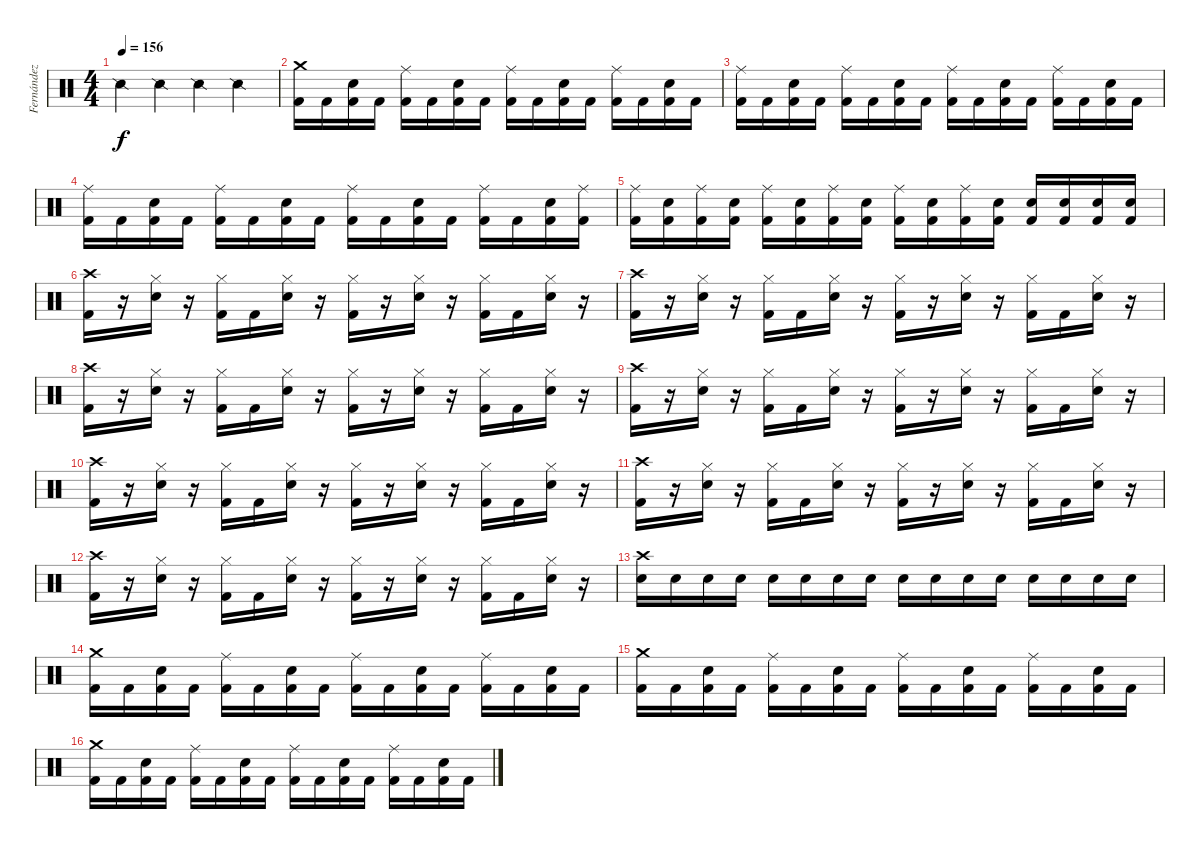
\track ("Fernández" "Fernández") {instrument percussion}
\staff {score}
\articulation defaults
\ts (4 4)
\tempo 156
\clef neutral
\ks c "Snare (side stick) 2".4{dy f} "Snare (side stick) 2".4 "Snare (side stick) 2".4 "Snare (side stick) 2".4
|
("Kick (hit) 2" "Crash medium (hit)").16 "Kick (hit) 2".16 ("Kick (hit) 2" "Electric Snare (hit)").16 "Kick (hit) 2".16 ("Kick (hit) 2" "Ride (middle)").16 "Kick (hit) 2".16 ("Kick (hit) 2" "Electric Snare (hit)").16 "Kick (hit) 2".16 ("Kick (hit) 2" "Ride (middle)").16 "Kick (hit) 2".16 ("Kick (hit) 2" "Electric Snare (hit)").16 "Kick (hit) 2".16 ("Kick (hit) 2" "Ride (middle)").16 "Kick (hit) 2".16 ("Kick (hit) 2" "Electric Snare (hit)").16 "Kick (hit) 2".16 |
("Kick (hit) 2" "Ride (middle)").16 "Kick (hit) 2".16 ("Kick (hit) 2" "Electric Snare (hit)").16 "Kick (hit) 2".16 ("Kick (hit) 2" "Ride (middle)").16 "Kick (hit) 2".16 ("Kick (hit) 2" "Electric Snare (hit)").16 "Kick (hit) 2".16 ("Kick (hit) 2" "Ride (middle)").16 "Kick (hit) 2".16 ("Kick (hit) 2" "Electric Snare (hit)").16 "Kick (hit) 2".16 ("Kick (hit) 2" "Ride (middle)").16 "Kick (hit) 2".16 ("Kick (hit) 2" "Electric Snare (hit)").16 "Kick (hit) 2".16 |
("Kick (hit) 2" "Ride (middle)").16 "Kick (hit) 2".16 ("Kick (hit) 2" "Electric Snare (hit)").16 "Kick (hit) 2".16 ("Kick (hit) 2" "Ride (middle)").16 "Kick (hit) 2".16 ("Kick (hit) 2" "Electric Snare (hit)").16 "Kick (hit) 2".16 ("Kick (hit) 2" "Ride (middle)").16 "Kick (hit) 2".16 ("Kick (hit) 2" "Electric Snare (hit)").16 "Kick (hit) 2".16 ("Kick (hit) 2" "Ride (middle)").16 "Kick (hit) 2".16 ("Kick (hit) 2" "Electric Snare (hit)").16 ("Kick (hit) 2" "Ride (middle)").16 |
("Kick (hit) 2" "Ride (middle)").16 ("Kick (hit) 2" "Electric Snare (hit)").16 ("Kick (hit) 2" "Ride (middle)").16 ("Kick (hit) 2" "Electric Snare (hit)").16 ("Kick (hit) 2" "Ride (middle)").16 ("Kick (hit) 2" "Electric Snare (hit)").16 ("Kick (hit) 2" "Ride (middle)").16 ("Kick (hit) 2" "Electric Snare (hit)").16 ("Kick (hit) 2" "Ride (middle)").16 ("Kick (hit) 2" "Electric Snare (hit)").16 ("Kick (hit) 2" "Ride (middle)").16 ("Kick (hit) 2" "Electric Snare (hit)").16 ("Kick (hit) 2" "Electric Snare (hit)").16 ("Kick (hit) 2" "Electric Snare (hit)").16 ("Kick (hit) 2" "Electric Snare (hit)").16 ("Kick (hit) 2" "Electric Snare (hit)").16 |
("Kick (hit) 2" "Crash high (hit)").16 r.16 ("Electric Snare (hit)" "Hi-Hat (closed)").16 r.16 ("Kick (hit) 2" "Hi-Hat (closed)").16 "Kick (hit) 2".16 ("Electric Snare (hit)" "Hi-Hat (closed)").16 r.16 ("Kick (hit) 2" "Hi-Hat (closed)").16 r.16 ("Electric Snare (hit)" "Hi-Hat (closed)").16 r.16 ("Kick (hit) 2" "Hi-Hat (closed)").16 "Kick (hit) 2".16 ("Electric Snare (hit)" "Hi-Hat (closed)").16 r.16 |
("Kick (hit) 2" "Crash high (hit)").16 r.16 ("Electric Snare (hit)" "Hi-Hat (closed)").16 r.16 ("Kick (hit) 2" "Hi-Hat (closed)").16 "Kick (hit) 2".16 ("Electric Snare (hit)" "Hi-Hat (closed)").16 r.16 ("Kick (hit) 2" "Hi-Hat (closed)").16 r.16 ("Electric Snare (hit)" "Hi-Hat (closed)").16 r.16 ("Kick (hit) 2" "Hi-Hat (closed)").16 "Kick (hit) 2".16 ("Electric Snare (hit)" "Hi-Hat (closed)").16 r.16 |
("Kick (hit) 2" "Crash high (hit)").16 r.16 ("Electric Snare (hit)" "Hi-Hat (closed)").16 r.16 ("Kick (hit) 2" "Hi-Hat (closed)").16 "Kick (hit) 2".16 ("Electric Snare (hit)" "Hi-Hat (closed)").16 r.16 ("Kick (hit) 2" "Hi-Hat (closed)").16 r.16 ("Electric Snare (hit)" "Hi-Hat (closed)").16 r.16 ("Kick (hit) 2" "Hi-Hat (closed)").16 "Kick (hit) 2".16 ("Electric Snare (hit)" "Hi-Hat (closed)").16 r.16 |
("Kick (hit) 2" "Crash high (hit)").16 r.16 ("Electric Snare (hit)" "Hi-Hat (closed)").16 r.16 ("Kick (hit) 2" "Hi-Hat (closed)").16 "Kick (hit) 2".16 ("Electric Snare (hit)" "Hi-Hat (closed)").16 r.16 ("Kick (hit) 2" "Hi-Hat (closed)").16 r.16 ("Electric Snare (hit)" "Hi-Hat (closed)").16 r.16 ("Kick (hit) 2" "Hi-Hat (closed)").16 "Kick (hit) 2".16 ("Electric Snare (hit)" "Hi-Hat (closed)").16 r.16 |
("Kick (hit) 2" "Crash high (hit)").16 r.16 ("Electric Snare (hit)" "Hi-Hat (closed)").16 r.16 ("Kick (hit) 2" "Hi-Hat (closed)").16 "Kick (hit) 2".16 ("Electric Snare (hit)" "Hi-Hat (closed)").16 r.16 ("Kick (hit) 2" "Hi-Hat (closed)").16 r.16 ("Electric Snare (hit)" "Hi-Hat (closed)").16 r.16 ("Kick (hit) 2" "Hi-Hat (closed)").16 "Kick (hit) 2".16 ("Electric Snare (hit)" "Hi-Hat (closed)").16 r.16 |
("Kick (hit) 2" "Crash high (hit)").16 r.16 ("Electric Snare (hit)" "Hi-Hat (closed)").16 r.16 ("Kick (hit) 2" "Hi-Hat (closed)").16 "Kick (hit) 2".16 ("Electric Snare (hit)" "Hi-Hat (closed)").16 r.16 ("Kick (hit) 2" "Hi-Hat (closed)").16 r.16 ("Electric Snare (hit)" "Hi-Hat (closed)").16 r.16 ("Kick (hit) 2" "Hi-Hat (closed)").16 "Kick (hit) 2".16 ("Electric Snare (hit)" "Hi-Hat (closed)").16 r.16 |
("Kick (hit) 2" "Crash high (hit)").16 r.16 ("Electric Snare (hit)" "Hi-Hat (closed)").16 r.16 ("Kick (hit) 2" "Hi-Hat (closed)").16 "Kick (hit) 2".16 ("Electric Snare (hit)" "Hi-Hat (closed)").16 r.16 ("Kick (hit) 2" "Hi-Hat (closed)").16 r.16 ("Electric Snare (hit)" "Hi-Hat (closed)").16 r.16 ("Kick (hit) 2" "Hi-Hat (closed)").16 "Kick (hit) 2".16 ("Electric Snare (hit)" "Hi-Hat (closed)").16 r.16 |
("Electric Snare (hit)" "Crash high (hit)").16 "Electric Snare (hit)".16 "Electric Snare (hit)".16 "Electric Snare (hit)".16 "Electric Snare (hit)".16 "Electric Snare (hit)".16 "Electric Snare (hit)".16 "Electric Snare (hit)".16 "Electric Snare (hit)".16 "Electric Snare (hit)".16 "Electric Snare (hit)".16 "Electric Snare (hit)".16 "Electric Snare (hit)".16 "Electric Snare (hit)".16 "Electric Snare (hit)".16 "Electric Snare (hit)".16 |
("Kick (hit) 2" "Crash medium (hit)").16 "Kick (hit) 2".16 ("Kick (hit) 2" "Electric Snare (hit)").16 "Kick (hit) 2".16 ("Kick (hit) 2" "Ride (middle)").16 "Kick (hit) 2".16 ("Kick (hit) 2" "Electric Snare (hit)").16 "Kick (hit) 2".16 ("Kick (hit) 2" "Ride (middle)").16 "Kick (hit) 2".16 ("Kick (hit) 2" "Electric Snare (hit)").16 "Kick (hit) 2".16 ("Kick (hit) 2" "Ride (middle)").16 "Kick (hit) 2".16 ("Kick (hit) 2" "Electric Snare (hit)").16 "Kick (hit) 2".16 |
("Kick (hit) 2" "Crash medium (hit)").16 "Kick (hit) 2".16 ("Kick (hit) 2" "Electric Snare (hit)").16 "Kick (hit) 2".16 ("Kick (hit) 2" "Ride (middle)").16 "Kick (hit) 2".16 ("Kick (hit) 2" "Electric Snare (hit)").16 "Kick (hit) 2".16 ("Kick (hit) 2" "Ride (middle)").16 "Kick (hit) 2".16 ("Kick (hit) 2" "Electric Snare (hit)").16 "Kick (hit) 2".16 ("Kick (hit) 2" "Ride (middle)").16 "Kick (hit) 2".16 ("Kick (hit) 2" "Electric Snare (hit)").16 "Kick (hit) 2".16 |
("Kick (hit) 2" "Crash medium (hit)").16 "Kick (hit) 2".16 ("Kick (hit) 2" "Electric Snare (hit)").16 "Kick (hit) 2".16 ("Kick (hit) 2" "Ride (middle)").16 "Kick (hit) 2".16 ("Kick (hit) 2" "Electric Snare (hit)").16 "Kick (hit) 2".16 ("Kick (hit) 2" "Ride (middle)").16 "Kick (hit) 2".16 ("Kick (hit) 2" "Electric Snare (hit)").16 "Kick (hit) 2".16 ("Kick (hit) 2" "Ride (middle)").16 "Kick (hit) 2".16 ("Kick (hit) 2" "Electric Snare (hit)").16 "Kick (hit) 2".16
